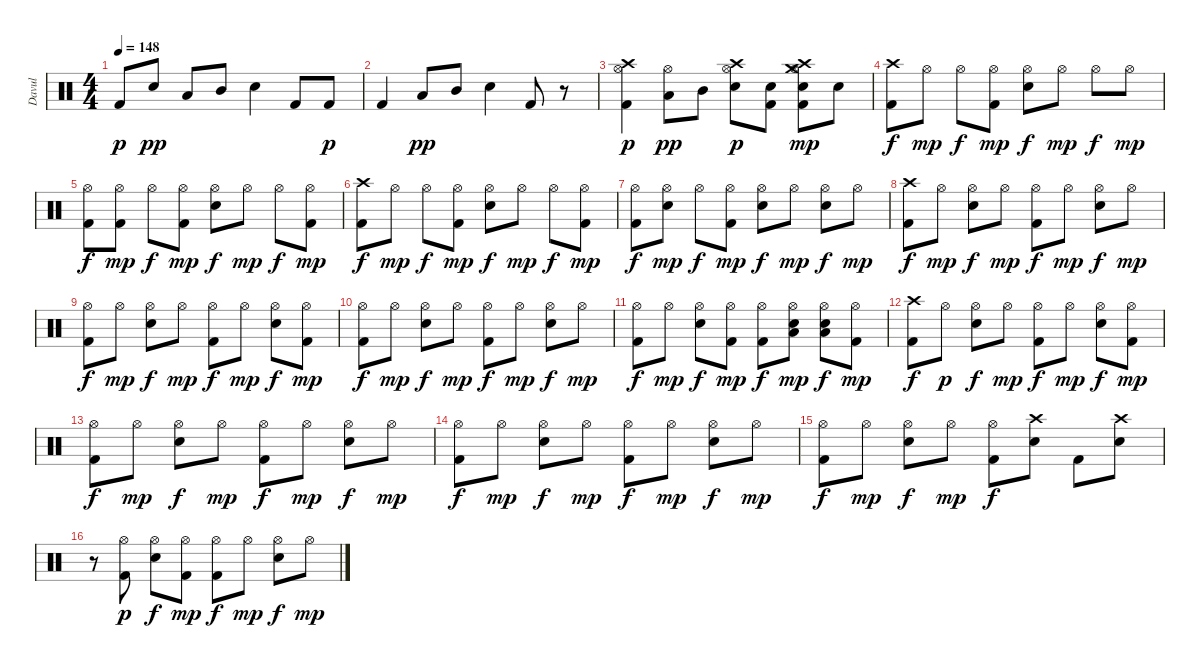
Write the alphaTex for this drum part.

\track ("Davul" "Davul") {instrument percussion}
\staff {score}
\articulation defaults
\ts (4 4)
\tempo 148
\clef neutral
\ks c "Kick (hit) 2".8{dy p} "Electric Snare (hit)".8{dy pp} "Low Tom (hit)".8 "Mid Tom (hit)".8 "Electric Snare (hit)".4 "Kick (hit) 2".8 "Kick (hit) 2".8{dy p}
|
"Kick (hit) 2".4 "Low Tom (hit)".8{dy pp} "Mid Tom (hit)".8 "Electric Snare (hit)".4 "Kick (hit) 2".8 r.8 |
("Kick (hit) 2" "Hi-Hat (open)" "Crash high (hit)").4{dy p} ("Low Tom (hit)" "Hi-Hat (open)").8{dy pp} "Mid Tom (hit)".8 ("Electric Snare (hit)" "Hi-Hat (open)" "Crash high (hit)").8{dy p} ("Kick (hit) 2" "Electric Snare (hit)").8 ("Kick (hit) 2" "Electric Snare (hit)" "Hi-Hat (open)" "Crash high (hit)" "Crash medium (hit)").8{dy mp} "Electric Snare (hit)".8 |
("Crash high (hit)" "Kick (hit) 2").8{dy f} "Hi-Hat (open)".8{dy mp} "Hi-Hat (open)".8{dy f} ("Hi-Hat (open)" "Kick (hit) 2").8{dy mp} ("Hi-Hat (open)" "Electric Snare (hit)").8{dy f} "Hi-Hat (open)".8{dy mp} "Hi-Hat (open)".8{dy f} "Hi-Hat (open)".8{dy mp} |
("Hi-Hat (open)" "Kick (hit) 2").8{dy f} ("Hi-Hat (open)" "Kick (hit) 2").8{dy mp} "Hi-Hat (open)".8{dy f} ("Hi-Hat (open)" "Kick (hit) 2").8{dy mp} ("Hi-Hat (open)" "Electric Snare (hit)").8{dy f} "Hi-Hat (open)".8{dy mp} "Hi-Hat (open)".8{dy f} ("Hi-Hat (open)" "Kick (hit) 2").8{dy mp} |
("Crash high (hit)" "Kick (hit) 2").8{dy f} "Hi-Hat (open)".8{dy mp} "Hi-Hat (open)".8{dy f} ("Hi-Hat (open)" "Kick (hit) 2").8{dy mp} ("Hi-Hat (open)" "Electric Snare (hit)").8{dy f} "Hi-Hat (open)".8{dy mp} "Hi-Hat (open)".8{dy f} ("Hi-Hat (open)" "Kick (hit) 2").8{dy mp} |
("Hi-Hat (open)" "Kick (hit) 2").8{dy f} ("Hi-Hat (open)" "Electric Snare (hit)").8{dy mp} "Hi-Hat (open)".8{dy f} ("Hi-Hat (open)" "Kick (hit) 2").8{dy mp} ("Hi-Hat (open)" "Electric Snare (hit)").8{dy f} "Hi-Hat (open)".8{dy mp} ("Hi-Hat (open)" "Electric Snare (hit)").8{dy f} "Hi-Hat (open)".8{dy mp} |
("Crash high (hit)" "Kick (hit) 2").8{dy f} "Hi-Hat (open)".8{dy mp} ("Hi-Hat (open)" "Electric Snare (hit)").8{dy f} "Hi-Hat (open)".8{dy mp} ("Hi-Hat (open)" "Kick (hit) 2").8{dy f} "Hi-Hat (open)".8{dy mp} ("Hi-Hat (open)" "Electric Snare (hit)").8{dy f} "Hi-Hat (open)".8{dy mp} |
("Hi-Hat (open)" "Kick (hit) 2").8{dy f} "Hi-Hat (open)".8{dy mp} ("Hi-Hat (open)" "Electric Snare (hit)").8{dy f} "Hi-Hat (open)".8{dy mp} ("Hi-Hat (open)" "Kick (hit) 2").8{dy f} "Hi-Hat (open)".8{dy mp} ("Hi-Hat (open)" "Electric Snare (hit)").8{dy f} ("Hi-Hat (open)" "Kick (hit) 2").8{dy mp} |
("Hi-Hat (open)" "Kick (hit) 2").8{dy f} "Hi-Hat (open)".8{dy mp} ("Hi-Hat (open)" "Electric Snare (hit)").8{dy f} "Hi-Hat (open)".8{dy mp} ("Hi-Hat (open)" "Kick (hit) 2").8{dy f} "Hi-Hat (open)".8{dy mp} ("Hi-Hat (open)" "Electric Snare (hit)").8{dy f} "Hi-Hat (open)".8{dy mp} |
("Hi-Hat (open)" "Kick (hit) 2").8{dy f} "Hi-Hat (open)".8{dy mp} ("Hi-Hat (open)" "Electric Snare (hit)").8{dy f} ("Hi-Hat (open)" "Kick (hit) 2").8{dy mp} ("Hi-Hat (open)" "Kick (hit) 2").8{dy f} ("Hi-Hat (open)" "Low Floor Tom (hit)" "Electric Snare (hit)").8{dy mp} ("Hi-Hat (open)" "Low Floor Tom (hit)" "Electric Snare (hit)").8{dy f} ("Hi-Hat (open)" "Kick (hit) 2").8{dy mp} |
("Crash high (hit)" "Kick (hit) 2").8{dy f} "Hi-Hat (open)".8{dy p} ("Hi-Hat (open)" "Electric Snare (hit)").8{dy f} "Hi-Hat (open)".8{dy mp} ("Hi-Hat (open)" "Kick (hit) 2").8{dy f} "Hi-Hat (open)".8{dy mp} ("Hi-Hat (open)" "Electric Snare (hit)").8{dy f} ("Hi-Hat (open)" "Kick (hit) 2").8{dy mp} |
("Hi-Hat (open)" "Kick (hit) 2").8{dy f} "Hi-Hat (open)".8{dy mp} ("Hi-Hat (open)" "Electric Snare (hit)").8{dy f} "Hi-Hat (open)".8{dy mp} ("Hi-Hat (open)" "Kick (hit) 2").8{dy f} "Hi-Hat (open)".8{dy mp} ("Hi-Hat (open)" "Electric Snare (hit)").8{dy f} "Hi-Hat (open)".8{dy mp} |
("Hi-Hat (open)" "Kick (hit) 2").8{dy f} "Hi-Hat (open)".8{dy mp} ("Hi-Hat (open)" "Electric Snare (hit)").8{dy f} "Hi-Hat (open)".8{dy mp} ("Hi-Hat (open)" "Kick (hit) 2").8{dy f} "Hi-Hat (open)".8{dy mp} ("Hi-Hat (open)" "Electric Snare (hit)").8{dy f} "Hi-Hat (open)".8{dy mp} |
("Hi-Hat (open)" "Kick (hit) 2").8{dy f} "Hi-Hat (open)".8{dy mp} ("Hi-Hat (open)" "Electric Snare (hit)").8{dy f} "Hi-Hat (open)".8{dy mp} ("Hi-Hat (open)" "Kick (hit) 2").8{dy f} ("Crash high (hit)" "Electric Snare (hit)").8 "Kick (hit) 2".8 ("Crash high (hit)" "Electric Snare (hit)").8 |
r.8 ("Hi-Hat (open)" "Kick (hit) 2").8{dy p} ("Hi-Hat (open)" "Electric Snare (hit)").8{dy f} ("Hi-Hat (open)" "Kick (hit) 2").8{dy mp} ("Hi-Hat (open)" "Kick (hit) 2").8{dy f} "Hi-Hat (open)".8{dy mp} ("Hi-Hat (open)" "Electric Snare (hit)").8{dy f} "Hi-Hat (open)".8{dy mp}
